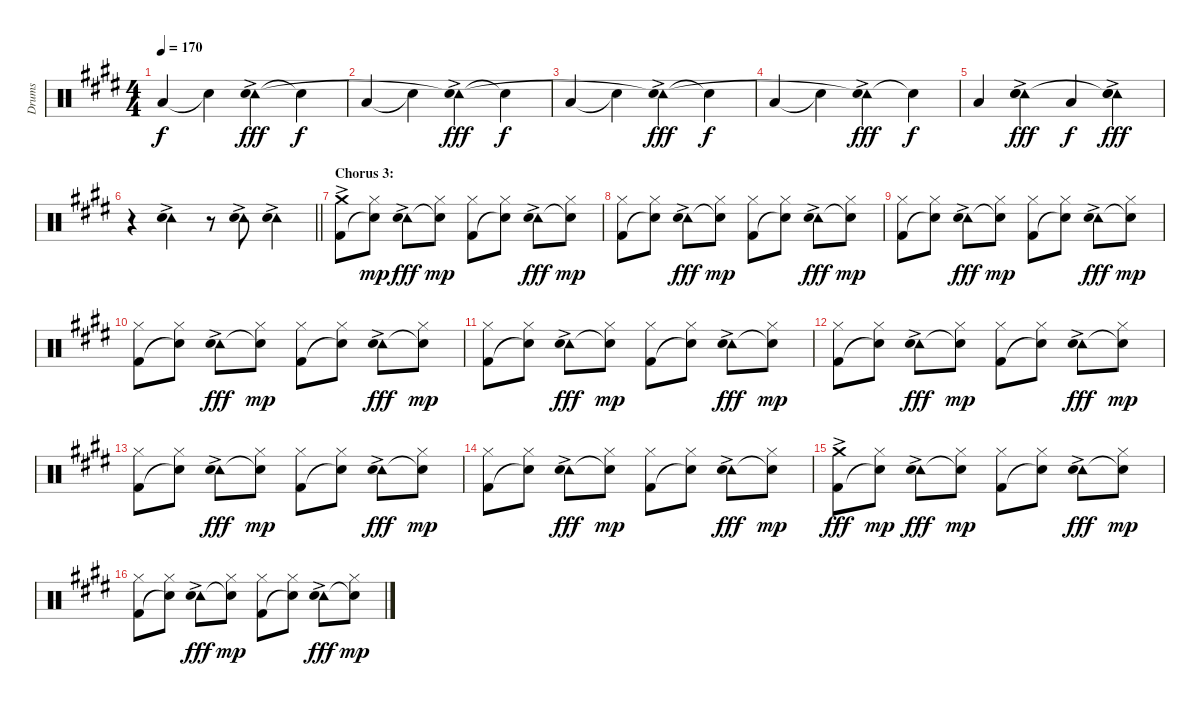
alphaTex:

\track ("Drums" "Drums") {instrument percussion}
\staff {score}
\articulation defaults
\ts (4 4)
\tempo 170
\clef neutral
\ks c#minor "Low Floor Tom (hit)".4{dy f} "Snare (hit)"{t}.4
("Tambourine (hit)"{ac} "Snare (hit)"{t}).4{dy fff} "Snare (hit)"{t}.4{dy f} |
"Low Floor Tom (hit)".4 "Snare (hit)"{t}.4 ("Tambourine (hit)"{ac} "Snare (hit)"{t}).4{dy fff} "Snare (hit)"{t}.4{dy f} |
"Low Floor Tom (hit)".4 "Snare (hit)"{t}.4 ("Tambourine (hit)"{ac} "Snare (hit)"{t}).4{dy fff} "Snare (hit)"{t}.4{dy f} |
"Low Floor Tom (hit)".4 "Snare (hit)"{t}.4 ("Tambourine (hit)"{ac} "Snare (hit)"{t}).4{dy fff} "Snare (hit)"{t}.4{dy f} |
"Low Floor Tom (hit)".4 ("Tambourine (hit)"{ac} "Hand Clap (hit)" "Snare (hit)").4{dy fff} "Low Floor Tom (hit)".4{dy f} ("Tambourine (hit)"{ac} "Hand Clap (hit)" "Snare (hit)"{t}).4{dy fff} |
\barLineRight lightlight
r.4 ("Tambourine (hit)"{ac} "Hand Clap (hit)").4 r.8 ("Tambourine (hit)"{ac} "Hand Clap (hit)").8 ("Tambourine (hit)"{ac} "Hand Clap (hit)").4 |
\section ("" "Chorus 3:")
("Crash medium (hit)"{ac} "Kick (hit) 2").8 ("Hi-Hat (closed)" "Snare (hit)"{t}).8{dy mp} ("Tambourine (hit)"{ac} "Hand Clap (hit)").8{dy fff} ("Hi-Hat (closed)" "Snare (hit)"{t}).8{dy mp} ("Hi-Hat (closed)" "Kick (hit) 2").8 ("Hi-Hat (closed)" "Snare (hit)"{t}).8 ("Tambourine (hit)"{ac} "Hand Clap (hit)").8{dy fff} ("Hi-Hat (closed)" "Snare (hit)"{t}).8{dy mp} |
("Hi-Hat (closed)" "Kick (hit) 2").8 ("Hi-Hat (closed)" "Snare (hit)"{t}).8 ("Tambourine (hit)"{ac} "Hand Clap (hit)").8{dy fff} ("Hi-Hat (closed)" "Snare (hit)"{t}).8{dy mp} ("Hi-Hat (closed)" "Kick (hit) 2").8 ("Hi-Hat (closed)" "Snare (hit)"{t}).8 ("Tambourine (hit)"{ac} "Hand Clap (hit)").8{dy fff} ("Hi-Hat (closed)" "Snare (hit)"{t}).8{dy mp} |
("Hi-Hat (closed)" "Kick (hit) 2").8 ("Hi-Hat (closed)" "Snare (hit)"{t}).8 ("Tambourine (hit)"{ac} "Hand Clap (hit)").8{dy fff} ("Hi-Hat (closed)" "Snare (hit)"{t}).8{dy mp} ("Hi-Hat (closed)" "Kick (hit) 2").8 ("Hi-Hat (closed)" "Snare (hit)"{t}).8 ("Tambourine (hit)"{ac} "Hand Clap (hit)").8{dy fff} ("Hi-Hat (closed)" "Snare (hit)"{t}).8{dy mp} |
("Hi-Hat (closed)" "Kick (hit) 2").8 ("Hi-Hat (closed)" "Snare (hit)"{t}).8 ("Tambourine (hit)"{ac} "Hand Clap (hit)").8{dy fff} ("Hi-Hat (closed)" "Snare (hit)"{t}).8{dy mp} ("Hi-Hat (closed)" "Kick (hit) 2").8 ("Hi-Hat (closed)" "Snare (hit)"{t}).8 ("Tambourine (hit)"{ac} "Hand Clap (hit)").8{dy fff} ("Hi-Hat (closed)" "Snare (hit)"{t}).8{dy mp} |
("Hi-Hat (closed)" "Kick (hit) 2").8 ("Hi-Hat (closed)" "Snare (hit)"{t}).8 ("Tambourine (hit)"{ac} "Hand Clap (hit)").8{dy fff} ("Hi-Hat (closed)" "Snare (hit)"{t}).8{dy mp} ("Hi-Hat (closed)" "Kick (hit) 2").8 ("Hi-Hat (closed)" "Snare (hit)"{t}).8 ("Tambourine (hit)"{ac} "Hand Clap (hit)").8{dy fff} ("Hi-Hat (closed)" "Snare (hit)"{t}).8{dy mp} |
("Hi-Hat (closed)" "Kick (hit) 2").8 ("Hi-Hat (closed)" "Snare (hit)"{t}).8 ("Tambourine (hit)"{ac} "Hand Clap (hit)").8{dy fff} ("Hi-Hat (closed)" "Snare (hit)"{t}).8{dy mp} ("Hi-Hat (closed)" "Kick (hit) 2").8 ("Hi-Hat (closed)" "Snare (hit)"{t}).8 ("Tambourine (hit)"{ac} "Hand Clap (hit)").8{dy fff} ("Hi-Hat (closed)" "Snare (hit)"{t}).8{dy mp} |
("Hi-Hat (closed)" "Kick (hit) 2").8 ("Hi-Hat (closed)" "Snare (hit)"{t}).8 ("Tambourine (hit)"{ac} "Hand Clap (hit)").8{dy fff} ("Hi-Hat (closed)" "Snare (hit)"{t}).8{dy mp} ("Hi-Hat (closed)" "Kick (hit) 2").8 ("Hi-Hat (closed)" "Snare (hit)"{t}).8 ("Tambourine (hit)"{ac} "Hand Clap (hit)").8{dy fff} ("Hi-Hat (closed)" "Snare (hit)"{t}).8{dy mp} |
("Hi-Hat (closed)" "Kick (hit) 2").8 ("Hi-Hat (closed)" "Snare (hit)"{t}).8 ("Tambourine (hit)"{ac} "Hand Clap (hit)").8{dy fff} ("Hi-Hat (closed)" "Snare (hit)"{t}).8{dy mp} ("Hi-Hat (closed)" "Kick (hit) 2").8 ("Hi-Hat (closed)" "Snare (hit)"{t}).8 ("Tambourine (hit)"{ac} "Hand Clap (hit)").8{dy fff} ("Hi-Hat (closed)" "Snare (hit)"{t}).8{dy mp} |
("Crash medium (hit)"{ac} "Kick (hit) 2").8{dy fff} ("Hi-Hat (closed)" "Snare (hit)"{t}).8{dy mp} ("Tambourine (hit)"{ac} "Hand Clap (hit)").8{dy fff} ("Hi-Hat (closed)" "Snare (hit)"{t}).8{dy mp} ("Hi-Hat (closed)" "Kick (hit) 2").8 ("Hi-Hat (closed)" "Snare (hit)"{t}).8 ("Tambourine (hit)"{ac} "Hand Clap (hit)").8{dy fff} ("Hi-Hat (closed)" "Snare (hit)"{t}).8{dy mp} |
("Hi-Hat (closed)" "Kick (hit) 2").8 ("Hi-Hat (closed)" "Snare (hit)"{t}).8 ("Tambourine (hit)"{ac} "Hand Clap (hit)").8{dy fff} ("Hi-Hat (closed)" "Snare (hit)"{t}).8{dy mp} ("Hi-Hat (closed)" "Kick (hit) 2").8 ("Hi-Hat (closed)" "Snare (hit)"{t}).8 ("Tambourine (hit)"{ac} "Hand Clap (hit)").8{dy fff} ("Hi-Hat (closed)" "Snare (hit)"{t}).8{dy mp}
